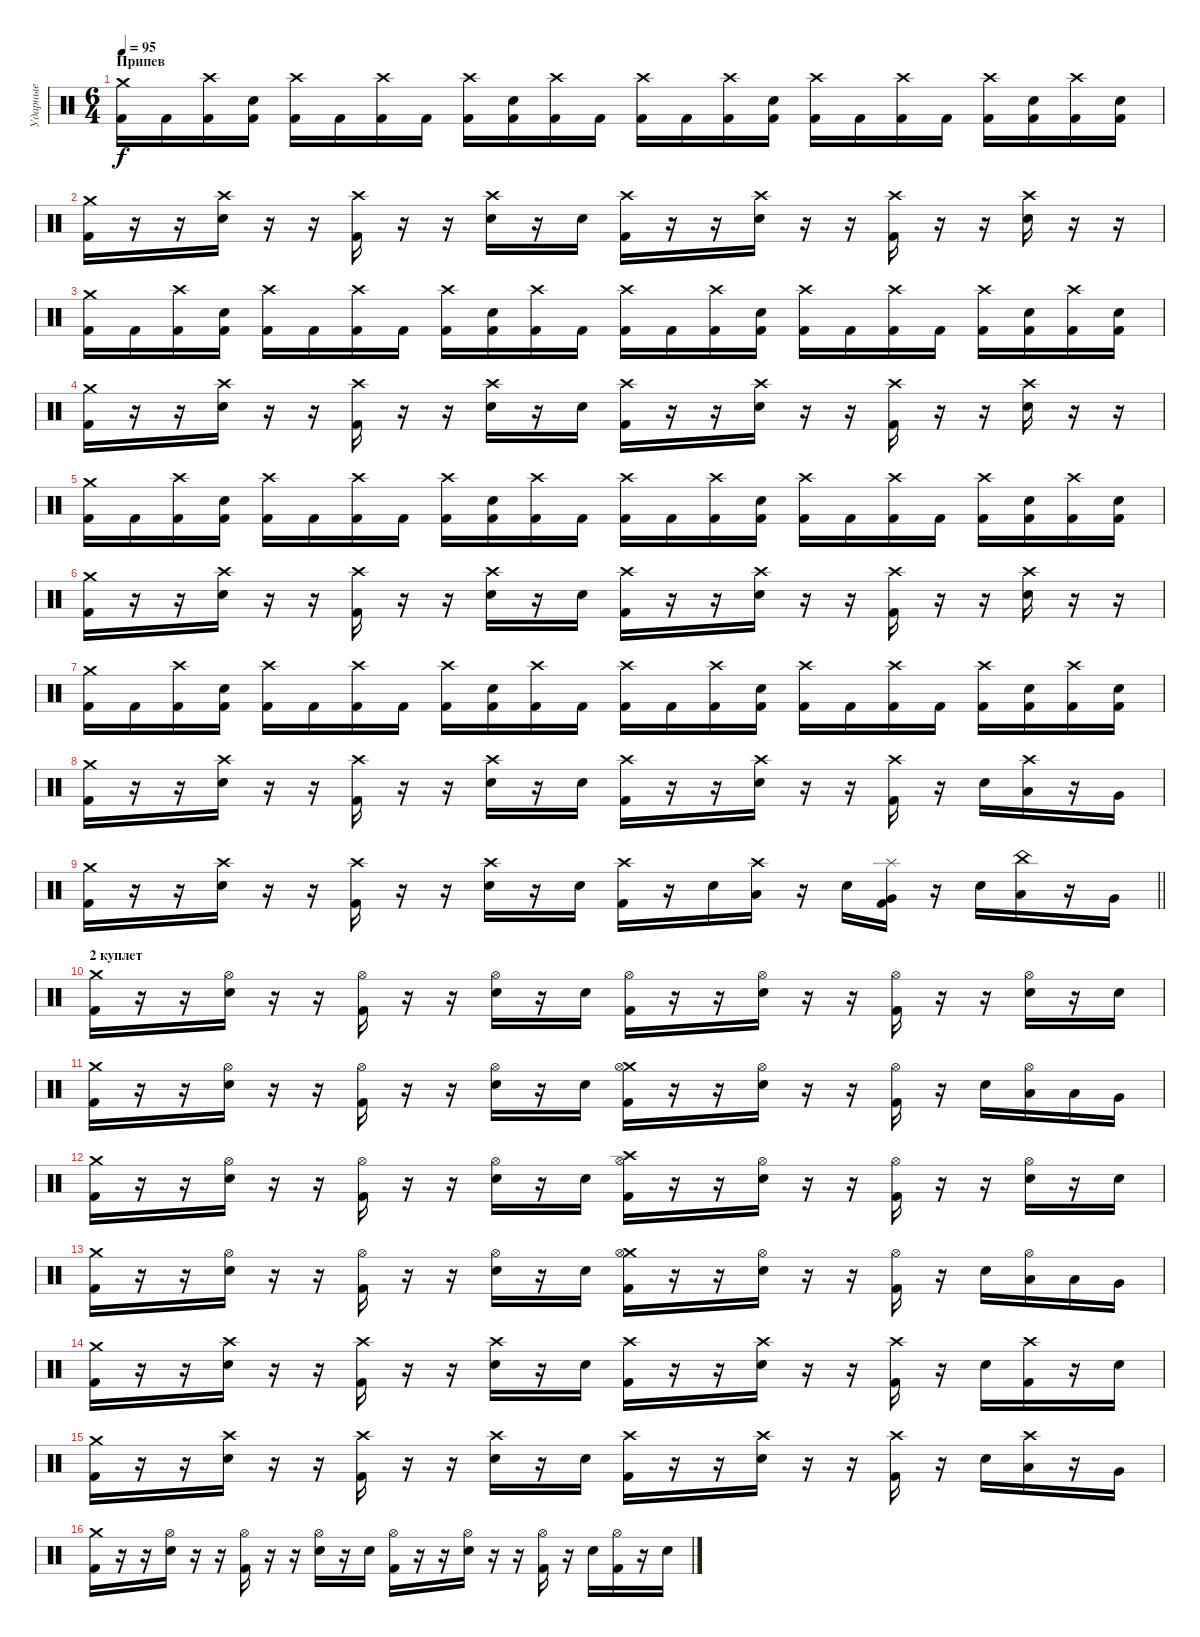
\track ("Ударные" "Ударные") {instrument percussion}
\staff {score}
\articulation defaults
\ts (6 4)
\section ("" "Припев")
\tempo 95
\clef neutral
\ks c
("Crash medium (hit)" "Kick (hit) 2").16{dy f} "Kick (hit) 2".16 ("Crash high (hit)" "Kick (hit) 2").16 ("Electric Snare (hit)" "Kick (hit) 2").16 ("Crash high (hit)" "Kick (hit) 2").16 "Kick (hit) 2".16 ("Crash high (hit)" "Kick (hit) 2").16 "Kick (hit) 2".16 ("Crash high (hit)" "Kick (hit) 2").16 ("Electric Snare (hit)" "Kick (hit) 2").16 ("Crash high (hit)" "Kick (hit) 2").16 "Kick (hit) 2".16 ("Crash high (hit)" "Kick (hit) 2").16 "Kick (hit) 2".16 ("Crash high (hit)" "Kick (hit) 2").16 ("Electric Snare (hit)" "Kick (hit) 2").16 ("Crash high (hit)" "Kick (hit) 2").16 "Kick (hit) 2".16 ("Crash high (hit)" "Kick (hit) 2").16 "Kick (hit) 2".16 ("Crash high (hit)" "Kick (hit) 2").16 ("Electric Snare (hit)" "Kick (hit) 2").16 ("Crash high (hit)" "Kick (hit) 2").16 ("Electric Snare (hit)" "Kick (hit) 2").16 |
("Crash medium (hit)" "Kick (hit) 2").16 r.16 r.16 ("Crash high (hit)" "Electric Snare (hit)").16 r.16 r.16 ("Crash high (hit)" "Kick (hit) 2").16 r.16 r.16 ("Crash high (hit)" "Electric Snare (hit)").16 r.16 "Electric Snare (hit)".16 ("Crash high (hit)" "Kick (hit) 2").16 r.16 r.16 ("Crash high (hit)" "Electric Snare (hit)").16 r.16 r.16 ("Crash high (hit)" "Kick (hit) 2").16 r.16 r.16 ("Crash high (hit)" "Electric Snare (hit)").16 r.16 r.16 |
("Crash medium (hit)" "Kick (hit) 2").16 "Kick (hit) 2".16 ("Crash high (hit)" "Kick (hit) 2").16 ("Electric Snare (hit)" "Kick (hit) 2").16 ("Crash high (hit)" "Kick (hit) 2").16 "Kick (hit) 2".16 ("Crash high (hit)" "Kick (hit) 2").16 "Kick (hit) 2".16 ("Crash high (hit)" "Kick (hit) 2").16 ("Electric Snare (hit)" "Kick (hit) 2").16 ("Crash high (hit)" "Kick (hit) 2").16 "Kick (hit) 2".16 ("Crash high (hit)" "Kick (hit) 2").16 "Kick (hit) 2".16 ("Crash high (hit)" "Kick (hit) 2").16 ("Electric Snare (hit)" "Kick (hit) 2").16 ("Crash high (hit)" "Kick (hit) 2").16 "Kick (hit) 2".16 ("Crash high (hit)" "Kick (hit) 2").16 "Kick (hit) 2".16 ("Crash high (hit)" "Kick (hit) 2").16 ("Electric Snare (hit)" "Kick (hit) 2").16 ("Crash high (hit)" "Kick (hit) 2").16 ("Electric Snare (hit)" "Kick (hit) 2").16 |
("Crash medium (hit)" "Kick (hit) 2").16 r.16 r.16 ("Crash high (hit)" "Electric Snare (hit)").16 r.16 r.16 ("Crash high (hit)" "Kick (hit) 2").16 r.16 r.16 ("Crash high (hit)" "Electric Snare (hit)").16 r.16 "Electric Snare (hit)".16 ("Crash high (hit)" "Kick (hit) 2").16 r.16 r.16 ("Crash high (hit)" "Electric Snare (hit)").16 r.16 r.16 ("Crash high (hit)" "Kick (hit) 2").16 r.16 r.16 ("Crash high (hit)" "Electric Snare (hit)").16 r.16 r.16 |
("Crash medium (hit)" "Kick (hit) 2").16 "Kick (hit) 2".16 ("Crash high (hit)" "Kick (hit) 2").16 ("Electric Snare (hit)" "Kick (hit) 2").16 ("Crash high (hit)" "Kick (hit) 2").16 "Kick (hit) 2".16 ("Crash high (hit)" "Kick (hit) 2").16 "Kick (hit) 2".16 ("Crash high (hit)" "Kick (hit) 2").16 ("Electric Snare (hit)" "Kick (hit) 2").16 ("Crash high (hit)" "Kick (hit) 2").16 "Kick (hit) 2".16 ("Crash high (hit)" "Kick (hit) 2").16 "Kick (hit) 2".16 ("Crash high (hit)" "Kick (hit) 2").16 ("Electric Snare (hit)" "Kick (hit) 2").16 ("Crash high (hit)" "Kick (hit) 2").16 "Kick (hit) 2".16 ("Crash high (hit)" "Kick (hit) 2").16 "Kick (hit) 2".16 ("Crash high (hit)" "Kick (hit) 2").16 ("Electric Snare (hit)" "Kick (hit) 2").16 ("Crash high (hit)" "Kick (hit) 2").16 ("Electric Snare (hit)" "Kick (hit) 2").16 |
("Crash medium (hit)" "Kick (hit) 2").16 r.16 r.16 ("Crash high (hit)" "Electric Snare (hit)").16 r.16 r.16 ("Crash high (hit)" "Kick (hit) 2").16 r.16 r.16 ("Crash high (hit)" "Electric Snare (hit)").16 r.16 "Electric Snare (hit)".16 ("Crash high (hit)" "Kick (hit) 2").16 r.16 r.16 ("Crash high (hit)" "Electric Snare (hit)").16 r.16 r.16 ("Crash high (hit)" "Kick (hit) 2").16 r.16 r.16 ("Crash high (hit)" "Electric Snare (hit)").16 r.16 r.16 |
("Crash medium (hit)" "Kick (hit) 2").16 "Kick (hit) 2".16 ("Crash high (hit)" "Kick (hit) 2").16 ("Electric Snare (hit)" "Kick (hit) 2").16 ("Crash high (hit)" "Kick (hit) 2").16 "Kick (hit) 2".16 ("Crash high (hit)" "Kick (hit) 2").16 "Kick (hit) 2".16 ("Crash high (hit)" "Kick (hit) 2").16 ("Electric Snare (hit)" "Kick (hit) 2").16 ("Crash high (hit)" "Kick (hit) 2").16 "Kick (hit) 2".16 ("Crash high (hit)" "Kick (hit) 2").16 "Kick (hit) 2".16 ("Crash high (hit)" "Kick (hit) 2").16 ("Electric Snare (hit)" "Kick (hit) 2").16 ("Crash high (hit)" "Kick (hit) 2").16 "Kick (hit) 2".16 ("Crash high (hit)" "Kick (hit) 2").16 "Kick (hit) 2".16 ("Crash high (hit)" "Kick (hit) 2").16 ("Electric Snare (hit)" "Kick (hit) 2").16 ("Crash high (hit)" "Kick (hit) 2").16 ("Electric Snare (hit)" "Kick (hit) 2").16 |
("Crash medium (hit)" "Kick (hit) 2").16 r.16 r.16 ("Crash high (hit)" "Electric Snare (hit)").16 r.16 r.16 ("Crash high (hit)" "Kick (hit) 2").16 r.16 r.16 ("Crash high (hit)" "Electric Snare (hit)").16 r.16 "Electric Snare (hit)".16 ("Crash high (hit)" "Kick (hit) 2").16 r.16 r.16 ("Crash high (hit)" "Electric Snare (hit)").16 r.16 r.16 ("Crash high (hit)" "Kick (hit) 2").16 r.16 "Electric Snare (hit)".16 ("Crash high (hit)" "Low Floor Tom (hit)").16 r.16 "Very Low Tom (hit)".16 |
\barLineRight lightlight
("Crash medium (hit)" "Kick (hit) 2").16 r.16 r.16 ("Crash high (hit)" "Electric Snare (hit)").16 r.16 r.16 ("Crash high (hit)" "Kick (hit) 2").16 r.16 r.16 ("Crash high (hit)" "Electric Snare (hit)").16 r.16 "Electric Snare (hit)".16 ("Crash high (hit)" "Kick (hit) 2").16 r.16 "Electric Snare (hit)".16 ("Crash high (hit)" "Low Floor Tom (hit)").16 r.16 "Electric Snare (hit)".16 ("Splash (hit)" "Very Low Tom (hit)" "Kick (hit) 2").16 r.16 "Electric Snare (hit)".16 ("China (hit)" "Low Floor Tom (hit)").16 r.16 "Very Low Tom (hit)".16 |
\section ("" "2 куплет")
("Crash medium (hit)" "Kick (hit) 2").16 r.16 r.16 ("Hi-Hat (open)" "Electric Snare (hit)").16 r.16 r.16 ("Hi-Hat (open)" "Kick (hit) 2").16 r.16 r.16 ("Hi-Hat (open)" "Electric Snare (hit)").16 r.16 "Electric Snare (hit)".16 ("Hi-Hat (open)" "Kick (hit) 2").16 r.16 r.16 ("Hi-Hat (open)" "Electric Snare (hit)").16 r.16 r.16 ("Hi-Hat (open)" "Kick (hit) 2").16 r.16 r.16 ("Hi-Hat (open)" "Electric Snare (hit)").16 r.16 "Electric Snare (hit)".16 |
("Crash medium (hit)" "Kick (hit) 2").16 r.16 r.16 ("Hi-Hat (open)" "Electric Snare (hit)").16 r.16 r.16 ("Hi-Hat (open)" "Kick (hit) 2").16 r.16 r.16 ("Hi-Hat (open)" "Electric Snare (hit)").16 r.16 "Electric Snare (hit)".16 ("Crash medium (hit)" "Hi-Hat (open)" "Kick (hit) 2").16 r.16 r.16 ("Hi-Hat (open)" "Electric Snare (hit)").16 r.16 r.16 ("Hi-Hat (open)" "Kick (hit) 2").16 r.16 "Electric Snare (hit)".16 ("Low Floor Tom (hit)" "Hi-Hat (open)").16 "Low Floor Tom (hit)".16 "Very Low Tom (hit)".16 |
("Crash medium (hit)" "Kick (hit) 2").16 r.16 r.16 ("Hi-Hat (open)" "Electric Snare (hit)").16 r.16 r.16 ("Hi-Hat (open)" "Kick (hit) 2").16 r.16 r.16 ("Hi-Hat (open)" "Electric Snare (hit)").16 r.16 "Electric Snare (hit)".16 ("Crash high (hit)" "Hi-Hat (open)" "Kick (hit) 2").16 r.16 r.16 ("Hi-Hat (open)" "Electric Snare (hit)").16 r.16 r.16 ("Hi-Hat (open)" "Kick (hit) 2").16 r.16 r.16 ("Hi-Hat (open)" "Electric Snare (hit)").16 r.16 "Electric Snare (hit)".16 |
("Crash medium (hit)" "Kick (hit) 2").16 r.16 r.16 ("Hi-Hat (open)" "Electric Snare (hit)").16 r.16 r.16 ("Hi-Hat (open)" "Kick (hit) 2").16 r.16 r.16 ("Hi-Hat (open)" "Electric Snare (hit)").16 r.16 "Electric Snare (hit)".16 ("Crash medium (hit)" "Hi-Hat (open)" "Kick (hit) 2").16 r.16 r.16 ("Hi-Hat (open)" "Electric Snare (hit)").16 r.16 r.16 ("Hi-Hat (open)" "Kick (hit) 2").16 r.16 "Electric Snare (hit)".16 ("Low Floor Tom (hit)" "Hi-Hat (open)").16 "Low Floor Tom (hit)".16 "Very Low Tom (hit)".16 |
("Crash medium (hit)" "Kick (hit) 2").16 r.16 r.16 ("Crash high (hit)" "Electric Snare (hit)").16 r.16 r.16 ("Crash high (hit)" "Kick (hit) 2").16 r.16 r.16 ("Crash high (hit)" "Electric Snare (hit)").16 r.16 "Electric Snare (hit)".16 ("Crash high (hit)" "Kick (hit) 2").16 r.16 r.16 ("Crash high (hit)" "Electric Snare (hit)").16 r.16 r.16 ("Crash high (hit)" "Kick (hit) 2").16 r.16 "Electric Snare (hit)".16 ("Crash high (hit)" "Kick (hit) 2").16 r.16 "Electric Snare (hit)".16 |
("Crash medium (hit)" "Kick (hit) 2").16 r.16 r.16 ("Crash high (hit)" "Electric Snare (hit)").16 r.16 r.16 ("Crash high (hit)" "Kick (hit) 2").16 r.16 r.16 ("Crash high (hit)" "Electric Snare (hit)").16 r.16 "Electric Snare (hit)".16 ("Crash high (hit)" "Kick (hit) 2").16 r.16 r.16 ("Crash high (hit)" "Electric Snare (hit)").16 r.16 r.16 ("Crash high (hit)" "Kick (hit) 2").16 r.16 "Electric Snare (hit)".16 ("Crash high (hit)" "Low Floor Tom (hit)").16 r.16 "Very Low Tom (hit)".16 |
("Crash medium (hit)" "Kick (hit) 2").16 r.16 r.16 ("Hi-Hat (open)" "Electric Snare (hit)").16 r.16 r.16 ("Hi-Hat (open)" "Kick (hit) 2").16 r.16 r.16 ("Hi-Hat (open)" "Electric Snare (hit)").16 r.16 "Electric Snare (hit)".16 ("Hi-Hat (open)" "Kick (hit) 2").16 r.16 r.16 ("Hi-Hat (open)" "Electric Snare (hit)").16 r.16 r.16 ("Hi-Hat (open)" "Kick (hit) 2").16 r.16 "Electric Snare (hit)".16 ("Hi-Hat (open)" "Kick (hit) 2").16 r.16 "Electric Snare (hit)".16
